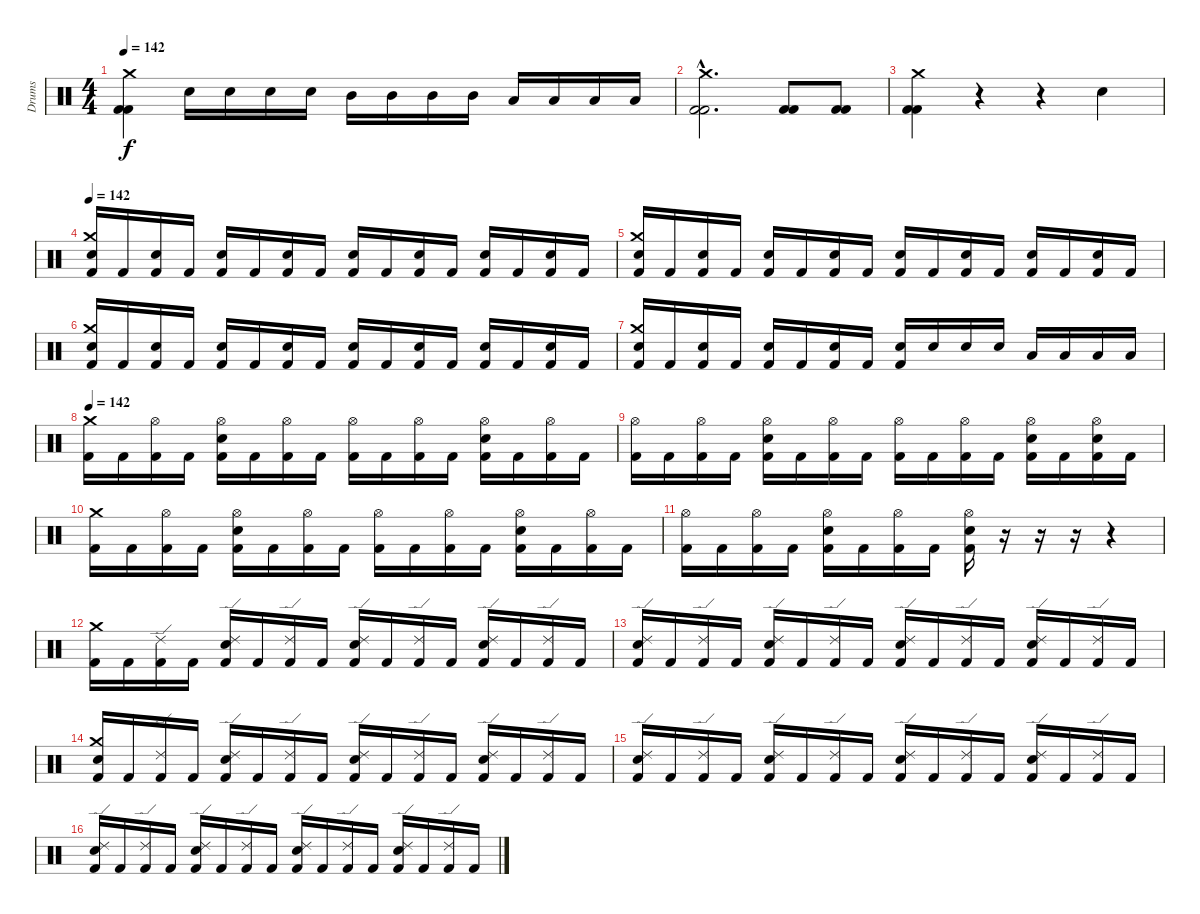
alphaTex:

\track ("Drums" "Drums") {instrument percussion}
\staff {score}
\articulation defaults
\ts (4 4)
\tempo 142
\clef neutral
\ks c
("Kick (hit) 2" "Kick (hit) 2" "Crash medium (hit)").4{dy f} "Snare (hit) 2".16 "Snare (hit) 2".16 "Snare (hit) 2".16 "Snare (hit) 2".16 "Mid Tom (hit)".16 "Mid Tom (hit)".16 "Mid Tom (hit)".16 "Mid Tom (hit)".16 "Low Tom (hit)".16 "Low Tom (hit)".16 "Low Tom (hit)".16 "Low Tom (hit)".16 |
("Kick (hit) 2"{hac} "Kick (hit) 2"{hac} "Crash medium (hit)"{hac}).2{d} ("Kick (hit) 2" "Kick (hit) 2").8 ("Kick (hit) 2" "Kick (hit) 2").8 |
("Kick (hit) 2" "Kick (hit) 2" "Crash medium (hit)").4 r.4 r.4 "Snare (hit) 2".4 |
\tempo 142
("Kick (hit) 2" "Snare (hit) 2" "Crash medium (hit)").16 "Kick (hit) 2".16 ("Kick (hit) 2" "Snare (hit) 2").16 "Kick (hit) 2".16 ("Kick (hit) 2" "Snare (hit) 2").16 "Kick (hit) 2".16 ("Kick (hit) 2" "Snare (hit) 2").16 "Kick (hit) 2".16 ("Kick (hit) 2" "Snare (hit) 2").16 "Kick (hit) 2".16 ("Kick (hit) 2" "Snare (hit) 2").16 "Kick (hit) 2".16 ("Kick (hit) 2" "Snare (hit) 2").16 "Kick (hit) 2".16 ("Kick (hit) 2" "Snare (hit) 2").16 "Kick (hit) 2".16 |
("Kick (hit) 2" "Snare (hit) 2" "Crash medium (hit)").16 "Kick (hit) 2".16 ("Kick (hit) 2" "Snare (hit) 2").16 "Kick (hit) 2".16 ("Kick (hit) 2" "Snare (hit) 2").16 "Kick (hit) 2".16 ("Kick (hit) 2" "Snare (hit) 2").16 "Kick (hit) 2".16 ("Kick (hit) 2" "Snare (hit) 2").16 "Kick (hit) 2".16 ("Kick (hit) 2" "Snare (hit) 2").16 "Kick (hit) 2".16 ("Kick (hit) 2" "Snare (hit) 2").16 "Kick (hit) 2".16 ("Kick (hit) 2" "Snare (hit) 2").16 "Kick (hit) 2".16 |
("Kick (hit) 2" "Snare (hit) 2" "Crash medium (hit)").16 "Kick (hit) 2".16 ("Kick (hit) 2" "Snare (hit) 2").16 "Kick (hit) 2".16 ("Kick (hit) 2" "Snare (hit) 2").16 "Kick (hit) 2".16 ("Kick (hit) 2" "Snare (hit) 2").16 "Kick (hit) 2".16 ("Kick (hit) 2" "Snare (hit) 2").16 "Kick (hit) 2".16 ("Kick (hit) 2" "Snare (hit) 2").16 "Kick (hit) 2".16 ("Kick (hit) 2" "Snare (hit) 2").16 "Kick (hit) 2".16 ("Kick (hit) 2" "Snare (hit) 2").16 "Kick (hit) 2".16 |
("Kick (hit) 2" "Snare (hit) 2" "Crash medium (hit)").16 "Kick (hit) 2".16 ("Kick (hit) 2" "Snare (hit) 2").16 "Kick (hit) 2".16 ("Kick (hit) 2" "Snare (hit) 2").16 "Kick (hit) 2".16 ("Kick (hit) 2" "Snare (hit) 2").16 "Kick (hit) 2".16 ("Kick (hit) 2" "Snare (hit) 2").16 "Snare (hit) 2".16 "Snare (hit) 2".16 "Snare (hit) 2".16 "Low Tom (hit)".16 "Low Tom (hit)".16 "Low Tom (hit)".16 "Low Tom (hit)".16 |
\tempo 142
("Kick (hit) 2" "Crash medium (hit)").16 "Kick (hit) 2".16 ("Kick (hit) 2" "Hi-Hat (open)").16 "Kick (hit) 2".16 ("Kick (hit) 2" "Snare (hit) 2" "Hi-Hat (open)").16 "Kick (hit) 2".16 ("Kick (hit) 2" "Hi-Hat (open)").16 "Kick (hit) 2".16 ("Kick (hit) 2" "Hi-Hat (open)").16 "Kick (hit) 2".16 ("Kick (hit) 2" "Hi-Hat (open)").16 "Kick (hit) 2".16 ("Kick (hit) 2" "Snare (hit) 2" "Hi-Hat (open)").16 "Kick (hit) 2".16 ("Kick (hit) 2" "Hi-Hat (open)").16 "Kick (hit) 2".16 |
("Kick (hit) 2" "Hi-Hat (open)").16 "Kick (hit) 2".16 ("Kick (hit) 2" "Hi-Hat (open)").16 "Kick (hit) 2".16 ("Kick (hit) 2" "Snare (hit) 2" "Hi-Hat (open)").16 "Kick (hit) 2".16 ("Kick (hit) 2" "Hi-Hat (open)").16 "Kick (hit) 2".16 ("Kick (hit) 2" "Hi-Hat (open)").16 "Kick (hit) 2".16 ("Kick (hit) 2" "Hi-Hat (open)").16 "Kick (hit) 2".16 ("Kick (hit) 2" "Snare (hit) 2" "Hi-Hat (open)").16 "Kick (hit) 2".16 ("Kick (hit) 2" "Snare (hit) 2" "Hi-Hat (open)").16 "Kick (hit) 2".16 |
("Kick (hit) 2" "Crash medium (hit)").16 "Kick (hit) 2".16 ("Kick (hit) 2" "Hi-Hat (open)").16 "Kick (hit) 2".16 ("Kick (hit) 2" "Snare (hit) 2" "Hi-Hat (open)").16 "Kick (hit) 2".16 ("Kick (hit) 2" "Hi-Hat (open)").16 "Kick (hit) 2".16 ("Kick (hit) 2" "Hi-Hat (open)").16 "Kick (hit) 2".16 ("Kick (hit) 2" "Hi-Hat (open)").16 "Kick (hit) 2".16 ("Kick (hit) 2" "Snare (hit) 2" "Hi-Hat (open)").16 "Kick (hit) 2".16 ("Kick (hit) 2" "Hi-Hat (open)").16 "Kick (hit) 2".16 |
("Kick (hit) 2" "Hi-Hat (open)").16 "Kick (hit) 2".16 ("Kick (hit) 2" "Hi-Hat (open)").16 "Kick (hit) 2".16 ("Kick (hit) 2" "Snare (hit) 2" "Hi-Hat (open)").16 "Kick (hit) 2".16 ("Kick (hit) 2" "Hi-Hat (open)").16 "Kick (hit) 2".16 ("Kick (hit) 2" "Snare (hit) 2" "Hi-Hat (open)").16 r.16 r.16 r.16 r.4 |
("Kick (hit) 2" "Crash medium (hit)").16 "Kick (hit) 2".16 ("Kick (hit) 2" "Ride (edge) 2").16 "Kick (hit) 2".16 ("Kick (hit) 2" "Ride (edge) 2" "Snare (hit) 2").16 "Kick (hit) 2".16 ("Kick (hit) 2" "Ride (edge) 2").16 "Kick (hit) 2".16 ("Kick (hit) 2" "Ride (edge) 2" "Snare (hit) 2").16 "Kick (hit) 2".16 ("Kick (hit) 2" "Ride (edge) 2").16 "Kick (hit) 2".16 ("Kick (hit) 2" "Ride (edge) 2" "Snare (hit) 2").16 "Kick (hit) 2".16 ("Kick (hit) 2" "Ride (edge) 2").16 "Kick (hit) 2".16 |
("Kick (hit) 2" "Snare (hit) 2" "Ride (edge) 2").16 "Kick (hit) 2".16 ("Kick (hit) 2" "Ride (edge) 2").16 "Kick (hit) 2".16 ("Kick (hit) 2" "Ride (edge) 2" "Snare (hit) 2").16 "Kick (hit) 2".16 ("Kick (hit) 2" "Ride (edge) 2").16 "Kick (hit) 2".16 ("Kick (hit) 2" "Ride (edge) 2" "Snare (hit) 2").16 "Kick (hit) 2".16 ("Kick (hit) 2" "Ride (edge) 2").16 "Kick (hit) 2".16 ("Kick (hit) 2" "Ride (edge) 2" "Snare (hit) 2").16 "Kick (hit) 2".16 ("Kick (hit) 2" "Ride (edge) 2").16 "Kick (hit) 2".16 |
("Kick (hit) 2" "Snare (hit) 2" "Crash medium (hit)").16 "Kick (hit) 2".16 ("Kick (hit) 2" "Ride (edge) 2").16 "Kick (hit) 2".16 ("Kick (hit) 2" "Ride (edge) 2" "Snare (hit) 2").16 "Kick (hit) 2".16 ("Kick (hit) 2" "Ride (edge) 2").16 "Kick (hit) 2".16 ("Kick (hit) 2" "Ride (edge) 2" "Snare (hit) 2").16 "Kick (hit) 2".16 ("Kick (hit) 2" "Ride (edge) 2").16 "Kick (hit) 2".16 ("Kick (hit) 2" "Ride (edge) 2" "Snare (hit) 2").16 "Kick (hit) 2".16 ("Kick (hit) 2" "Ride (edge) 2").16 "Kick (hit) 2".16 |
("Kick (hit) 2" "Snare (hit) 2" "Ride (edge) 2").16 "Kick (hit) 2".16 ("Kick (hit) 2" "Ride (edge) 2").16 "Kick (hit) 2".16 ("Kick (hit) 2" "Ride (edge) 2" "Snare (hit) 2").16 "Kick (hit) 2".16 ("Kick (hit) 2" "Ride (edge) 2").16 "Kick (hit) 2".16 ("Kick (hit) 2" "Ride (edge) 2" "Snare (hit) 2").16 "Kick (hit) 2".16 ("Kick (hit) 2" "Ride (edge) 2").16 "Kick (hit) 2".16 ("Kick (hit) 2" "Ride (edge) 2" "Snare (hit) 2").16 "Kick (hit) 2".16 ("Kick (hit) 2" "Ride (edge) 2").16 "Kick (hit) 2".16 |
("Kick (hit) 2" "Snare (hit) 2" "Ride (edge) 2").16 "Kick (hit) 2".16 ("Kick (hit) 2" "Ride (edge) 2").16 "Kick (hit) 2".16 ("Kick (hit) 2" "Ride (edge) 2" "Snare (hit) 2").16 "Kick (hit) 2".16 ("Kick (hit) 2" "Ride (edge) 2").16 "Kick (hit) 2".16 ("Kick (hit) 2" "Ride (edge) 2" "Snare (hit) 2").16 "Kick (hit) 2".16 ("Kick (hit) 2" "Ride (edge) 2").16 "Kick (hit) 2".16 ("Kick (hit) 2" "Ride (edge) 2" "Snare (hit) 2").16 "Kick (hit) 2".16 ("Kick (hit) 2" "Ride (edge) 2").16 "Kick (hit) 2".16
